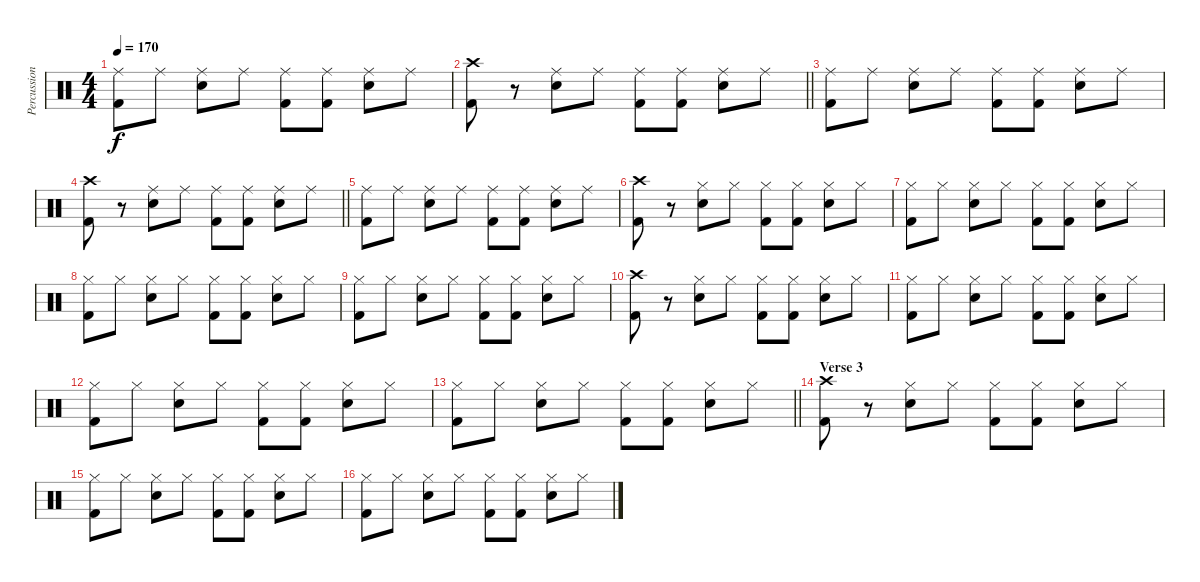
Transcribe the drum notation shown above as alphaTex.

\track ("Percussion" "Percussion") {instrument percussion}
\staff {score}
\articulation defaults
\ts (4 4)
\tempo 170
\clef neutral
\ks c
("Ride (middle)" "Kick (hit) 2").8{dy f} "Ride (middle)".8 ("Ride (middle)" "Snare (hit) 2").8 "Ride (middle)".8 ("Ride (middle)" "Kick (hit) 2").8 ("Ride (middle)" "Kick (hit) 2").8 ("Ride (middle)" "Snare (hit) 2").8 "Ride (middle)".8 |
\barLineRight lightlight
("Crash high (hit)" "Kick (hit) 2").8 r.8 ("Ride (middle)" "Snare (hit) 2").8 "Ride (middle)".8 ("Ride (middle)" "Kick (hit) 2").8 ("Ride (middle)" "Kick (hit) 2").8 ("Ride (middle)" "Snare (hit) 2").8 "Ride (middle)".8 |
("Ride (middle)" "Kick (hit) 2").8 "Ride (middle)".8 ("Ride (middle)" "Snare (hit) 2").8 "Ride (middle)".8 ("Ride (middle)" "Kick (hit) 2").8 ("Ride (middle)" "Kick (hit) 2").8 ("Ride (middle)" "Snare (hit) 2").8 "Ride (middle)".8 |
\barLineRight lightlight
("Crash high (hit)" "Kick (hit) 2").8 r.8 ("Ride (middle)" "Snare (hit) 2").8 "Ride (middle)".8 ("Ride (middle)" "Kick (hit) 2").8 ("Ride (middle)" "Kick (hit) 2").8 ("Ride (middle)" "Snare (hit) 2").8 "Ride (middle)".8 |
("Ride (middle)" "Kick (hit) 2").8 "Ride (middle)".8 ("Ride (middle)" "Snare (hit) 2").8 "Ride (middle)".8 ("Ride (middle)" "Kick (hit) 2").8 ("Ride (middle)" "Kick (hit) 2").8 ("Ride (middle)" "Snare (hit) 2").8 "Ride (middle)".8 |
("Crash high (hit)" "Kick (hit) 2").8 r.8 ("Hi-Hat (closed)" "Snare (hit) 2").8 "Hi-Hat (closed)".8 ("Hi-Hat (closed)" "Kick (hit) 2").8 ("Hi-Hat (closed)" "Kick (hit) 2").8 ("Hi-Hat (closed)" "Snare (hit) 2").8 "Hi-Hat (closed)".8 |
("Hi-Hat (closed)" "Kick (hit) 2").8 "Hi-Hat (closed)".8 ("Hi-Hat (closed)" "Snare (hit) 2").8 "Hi-Hat (closed)".8 ("Hi-Hat (closed)" "Kick (hit) 2").8 ("Hi-Hat (closed)" "Kick (hit) 2").8 ("Hi-Hat (closed)" "Snare (hit) 2").8 "Hi-Hat (closed)".8 |
("Hi-Hat (closed)" "Kick (hit) 2").8 "Hi-Hat (closed)".8 ("Hi-Hat (closed)" "Snare (hit) 2").8 "Hi-Hat (closed)".8 ("Hi-Hat (closed)" "Kick (hit) 2").8 ("Hi-Hat (closed)" "Kick (hit) 2").8 ("Hi-Hat (closed)" "Snare (hit) 2").8 "Hi-Hat (closed)".8 |
("Hi-Hat (closed)" "Kick (hit) 2").8 "Hi-Hat (closed)".8 ("Hi-Hat (closed)" "Snare (hit) 2").8 "Hi-Hat (closed)".8 ("Hi-Hat (closed)" "Kick (hit) 2").8 ("Hi-Hat (closed)" "Kick (hit) 2").8 ("Hi-Hat (closed)" "Snare (hit) 2").8 "Hi-Hat (closed)".8 |
("Crash high (hit)" "Kick (hit) 2").8 r.8 ("Hi-Hat (closed)" "Snare (hit) 2").8 "Hi-Hat (closed)".8 ("Hi-Hat (closed)" "Kick (hit) 2").8 ("Hi-Hat (closed)" "Kick (hit) 2").8 ("Hi-Hat (closed)" "Snare (hit) 2").8 "Hi-Hat (closed)".8 |
("Hi-Hat (closed)" "Kick (hit) 2").8 "Hi-Hat (closed)".8 ("Hi-Hat (closed)" "Snare (hit) 2").8 "Hi-Hat (closed)".8 ("Hi-Hat (closed)" "Kick (hit) 2").8 ("Hi-Hat (closed)" "Kick (hit) 2").8 ("Hi-Hat (closed)" "Snare (hit) 2").8 "Hi-Hat (closed)".8 |
("Hi-Hat (closed)" "Kick (hit) 2").8 "Hi-Hat (closed)".8 ("Hi-Hat (closed)" "Snare (hit) 2").8 "Hi-Hat (closed)".8 ("Hi-Hat (closed)" "Kick (hit) 2").8 ("Hi-Hat (closed)" "Kick (hit) 2").8 ("Hi-Hat (closed)" "Snare (hit) 2").8 "Hi-Hat (closed)".8 |
\barLineRight lightlight
("Hi-Hat (closed)" "Kick (hit) 2").8 "Hi-Hat (closed)".8 ("Hi-Hat (closed)" "Snare (hit) 2").8 "Hi-Hat (closed)".8 ("Hi-Hat (closed)" "Kick (hit) 2").8 ("Hi-Hat (closed)" "Kick (hit) 2").8 ("Hi-Hat (closed)" "Snare (hit) 2").8 "Hi-Hat (closed)".8 |
\section ("" "Verse 3")
("Crash high (hit)" "Kick (hit) 2").8 r.8 ("Hi-Hat (closed)" "Snare (hit) 2").8 "Hi-Hat (closed)".8 ("Hi-Hat (closed)" "Kick (hit) 2").8 ("Hi-Hat (closed)" "Kick (hit) 2").8 ("Hi-Hat (closed)" "Snare (hit) 2").8 "Hi-Hat (closed)".8 |
("Hi-Hat (closed)" "Kick (hit) 2").8 "Hi-Hat (closed)".8 ("Hi-Hat (closed)" "Snare (hit) 2").8 "Hi-Hat (closed)".8 ("Hi-Hat (closed)" "Kick (hit) 2").8 ("Hi-Hat (closed)" "Kick (hit) 2").8 ("Hi-Hat (closed)" "Snare (hit) 2").8 "Hi-Hat (closed)".8 |
("Hi-Hat (closed)" "Kick (hit) 2").8 "Hi-Hat (closed)".8 ("Hi-Hat (closed)" "Snare (hit) 2").8 "Hi-Hat (closed)".8 ("Hi-Hat (closed)" "Kick (hit) 2").8 ("Hi-Hat (closed)" "Kick (hit) 2").8 ("Hi-Hat (closed)" "Snare (hit) 2").8 "Hi-Hat (closed)".8
